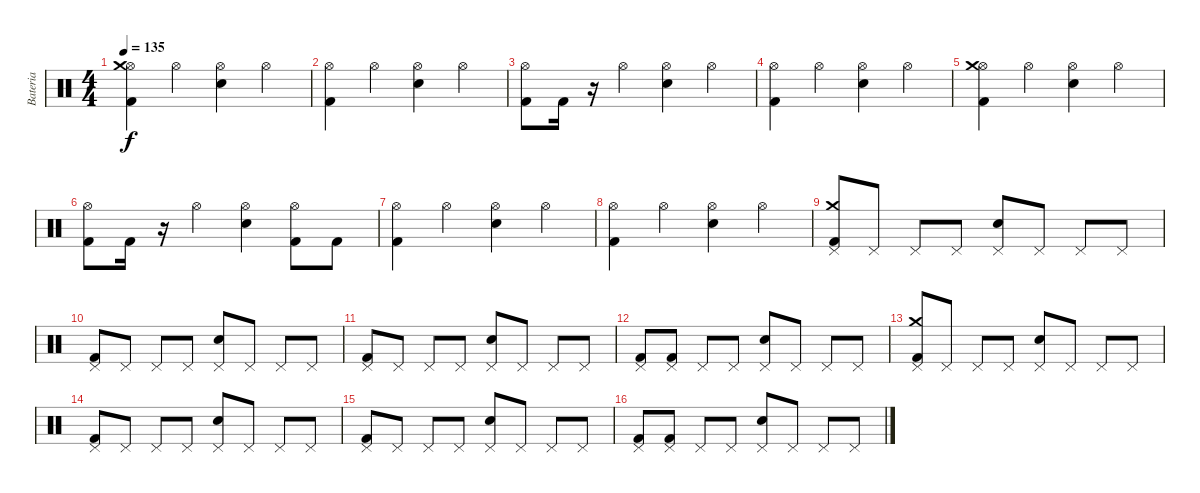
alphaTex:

\track ("Bateria" "Bateria") {instrument percussion}
\staff {score}
\articulation defaults
\ts (4 4)
\tempo 135
\clef neutral
\ks c
("Kick (hit) 2" "Hi-Hat (open)" "Crash medium (hit)").4{dy f} "Hi-Hat (open)".4 ("Electric Snare (hit)" "Hi-Hat (open)").4 "Hi-Hat (open)".4 |
("Kick (hit) 2" "Hi-Hat (open)").4 "Hi-Hat (open)".4 ("Electric Snare (hit)" "Hi-Hat (open)").4 "Hi-Hat (open)".4 |
("Kick (hit) 2" "Hi-Hat (open)").8 "Kick (hit) 2".16 r.16 "Hi-Hat (open)".4 ("Electric Snare (hit)" "Hi-Hat (open)").4 "Hi-Hat (open)".4 |
("Kick (hit) 2" "Hi-Hat (open)").4 "Hi-Hat (open)".4 ("Electric Snare (hit)" "Hi-Hat (open)").4 "Hi-Hat (open)".4 |
("Kick (hit) 2" "Hi-Hat (open)" "Crash medium (hit)").4 "Hi-Hat (open)".4 ("Electric Snare (hit)" "Hi-Hat (open)").4 "Hi-Hat (open)".4 |
("Kick (hit) 2" "Hi-Hat (open)").8 "Kick (hit) 2".16 r.16 "Hi-Hat (open)".4 ("Electric Snare (hit)" "Hi-Hat (open)").4 ("Kick (hit) 2" "Hi-Hat (open)").8 "Kick (hit) 2".8 |
("Kick (hit) 2" "Hi-Hat (open)").4 "Hi-Hat (open)".4 ("Electric Snare (hit)" "Hi-Hat (open)").4 "Hi-Hat (open)".4 |
("Kick (hit) 2" "Hi-Hat (open)").4 "Hi-Hat (open)".4 ("Electric Snare (hit)" "Hi-Hat (open)").4 "Hi-Hat (open)".4 |
("Kick (hit) 2" "Pedal Hi-Hat (hit)" "Crash medium (hit)").8 "Pedal Hi-Hat (hit)".8 "Pedal Hi-Hat (hit)".8 "Pedal Hi-Hat (hit)".8 ("Electric Snare (hit)" "Pedal Hi-Hat (hit)").8 "Pedal Hi-Hat (hit)".8 "Pedal Hi-Hat (hit)".8 "Pedal Hi-Hat (hit)".8 |
("Kick (hit) 2" "Pedal Hi-Hat (hit)").8 "Pedal Hi-Hat (hit)".8 "Pedal Hi-Hat (hit)".8 "Pedal Hi-Hat (hit)".8 ("Electric Snare (hit)" "Pedal Hi-Hat (hit)").8 "Pedal Hi-Hat (hit)".8 "Pedal Hi-Hat (hit)".8 "Pedal Hi-Hat (hit)".8 |
("Kick (hit) 2" "Pedal Hi-Hat (hit)").8 "Pedal Hi-Hat (hit)".8 "Pedal Hi-Hat (hit)".8 "Pedal Hi-Hat (hit)".8 ("Electric Snare (hit)" "Pedal Hi-Hat (hit)").8 "Pedal Hi-Hat (hit)".8 "Pedal Hi-Hat (hit)".8 "Pedal Hi-Hat (hit)".8 |
("Kick (hit) 2" "Pedal Hi-Hat (hit)").8 ("Kick (hit) 2" "Pedal Hi-Hat (hit)").8 "Pedal Hi-Hat (hit)".8 "Pedal Hi-Hat (hit)".8 ("Electric Snare (hit)" "Pedal Hi-Hat (hit)").8 "Pedal Hi-Hat (hit)".8 "Pedal Hi-Hat (hit)".8 "Pedal Hi-Hat (hit)".8 |
("Kick (hit) 2" "Pedal Hi-Hat (hit)" "Crash medium (hit)").8 "Pedal Hi-Hat (hit)".8 "Pedal Hi-Hat (hit)".8 "Pedal Hi-Hat (hit)".8 ("Electric Snare (hit)" "Pedal Hi-Hat (hit)").8 "Pedal Hi-Hat (hit)".8 "Pedal Hi-Hat (hit)".8 "Pedal Hi-Hat (hit)".8 |
("Kick (hit) 2" "Pedal Hi-Hat (hit)").8 "Pedal Hi-Hat (hit)".8 "Pedal Hi-Hat (hit)".8 "Pedal Hi-Hat (hit)".8 ("Electric Snare (hit)" "Pedal Hi-Hat (hit)").8 "Pedal Hi-Hat (hit)".8 "Pedal Hi-Hat (hit)".8 "Pedal Hi-Hat (hit)".8 |
("Kick (hit) 2" "Pedal Hi-Hat (hit)").8 "Pedal Hi-Hat (hit)".8 "Pedal Hi-Hat (hit)".8 "Pedal Hi-Hat (hit)".8 ("Electric Snare (hit)" "Pedal Hi-Hat (hit)").8 "Pedal Hi-Hat (hit)".8 "Pedal Hi-Hat (hit)".8 "Pedal Hi-Hat (hit)".8 |
("Kick (hit) 2" "Pedal Hi-Hat (hit)").8 ("Kick (hit) 2" "Pedal Hi-Hat (hit)").8 "Pedal Hi-Hat (hit)".8 "Pedal Hi-Hat (hit)".8 ("Electric Snare (hit)" "Pedal Hi-Hat (hit)").8 "Pedal Hi-Hat (hit)".8 "Pedal Hi-Hat (hit)".8 "Pedal Hi-Hat (hit)".8
